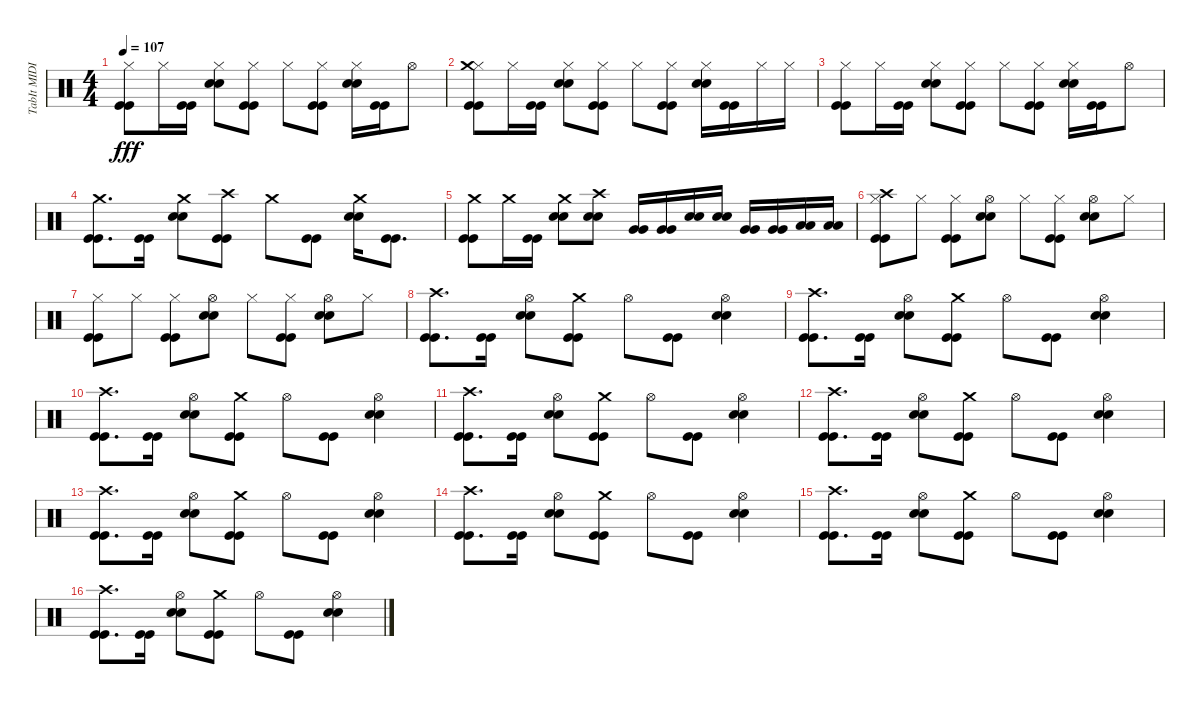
\track ("TabIt MIDI - Track 5" "TabIt MIDI") {instrument percussion}
\staff {score}
\articulation defaults
\ts (4 4)
\tempo 107
\clef neutral
\ks c
("Kick (hit)" "Kick (hit)" "Hi-Hat (closed)").8{dy fff} "Hi-Hat (closed)".16 ("Kick (hit)" "Kick (hit)").16 ("Snare (hit) 2" "Snare (hit) 2" "Hi-Hat (closed)").8 ("Kick (hit)" "Kick (hit)" "Hi-Hat (closed)").8 "Hi-Hat (closed)".8 ("Kick (hit)" "Kick (hit)" "Hi-Hat (closed)").8 ("Snare (hit) 2" "Snare (hit) 2" "Hi-Hat (closed)").16 ("Kick (hit)" "Kick (hit)").16 "Hi-Hat (open)".8 |
("Kick (hit)" "Kick (hit)" "Hi-Hat (closed)" "Crash medium (hit)").8 "Hi-Hat (closed)".16 ("Kick (hit)" "Kick (hit)").16 ("Snare (hit) 2" "Snare (hit) 2" "Hi-Hat (closed)").8 ("Kick (hit)" "Kick (hit)" "Hi-Hat (closed)").8 "Hi-Hat (closed)".8 ("Kick (hit)" "Kick (hit)" "Hi-Hat (closed)").8 ("Snare (hit) 2" "Snare (hit) 2" "Hi-Hat (closed)").16 ("Kick (hit)" "Kick (hit)").16 "Hi-Hat (closed)".16 "Hi-Hat (closed)".16 |
("Kick (hit)" "Kick (hit)" "Hi-Hat (closed)").8 "Hi-Hat (closed)".16 ("Kick (hit)" "Kick (hit)").16 ("Snare (hit) 2" "Snare (hit) 2" "Hi-Hat (closed)").8 ("Kick (hit)" "Kick (hit)" "Hi-Hat (closed)").8 "Hi-Hat (closed)".8 ("Kick (hit)" "Kick (hit)" "Hi-Hat (closed)").8 ("Snare (hit) 2" "Snare (hit) 2" "Hi-Hat (closed)").16 ("Kick (hit)" "Kick (hit)").16 "Hi-Hat (open)".8 |
("Kick (hit)" "Kick (hit)" "Crash medium (hit)").8{d} ("Kick (hit)" "Kick (hit)").16 ("Snare (hit) 2" "Snare (hit) 2" "Crash medium (hit)").8 ("Kick (hit)" "Kick (hit)" "Crash high (hit)").8 "Crash medium (hit)".8 ("Kick (hit)" "Kick (hit)").8 ("Snare (hit) 2" "Snare (hit) 2" "Crash medium (hit)").16 ("Kick (hit)" "Kick (hit)").8{d} |
("Kick (hit)" "Kick (hit)" "Crash medium (hit)").8 "Crash medium (hit)".16 ("Kick (hit)" "Kick (hit)").16 ("Snare (hit) 2" "Snare (hit) 2" "Crash medium (hit)").8 ("Snare (hit) 2" "Snare (hit) 2" "Crash high (hit)").8 ("Very Low Tom (hit)" "Very Low Tom (hit)").16 ("Very Low Tom (hit)" "Very Low Tom (hit)").16 ("Snare (hit) 2" "Snare (hit) 2").16 ("Snare (hit) 2" "Snare (hit) 2").16 ("Very Low Tom (hit)" "Very Low Tom (hit)").16 ("Very Low Tom (hit)" "Very Low Tom (hit)").16 ("Low Floor Tom (hit)" "Low Floor Tom (hit)").16 ("Low Floor Tom (hit)" "Low Floor Tom (hit)").16 |
("Kick (hit)" "Kick (hit)" "Hi-Hat (closed)" "Crash high (hit)").8 "Hi-Hat (closed)".8 ("Kick (hit)" "Kick (hit)" "Hi-Hat (closed)").8 ("Snare (hit) 2" "Snare (hit) 2" "Hi-Hat (open)").8 "Hi-Hat (closed)".8 ("Kick (hit)" "Kick (hit)" "Hi-Hat (closed)").8 ("Snare (hit) 2" "Snare (hit) 2" "Hi-Hat (open)").8 "Hi-Hat (closed)".8 |
("Kick (hit)" "Kick (hit)" "Hi-Hat (closed)").8 "Hi-Hat (closed)".8 ("Kick (hit)" "Kick (hit)" "Hi-Hat (closed)").8 ("Snare (hit) 2" "Snare (hit) 2" "Hi-Hat (open)").8 "Hi-Hat (closed)".8 ("Kick (hit)" "Kick (hit)" "Hi-Hat (closed)").8 ("Snare (hit) 2" "Snare (hit) 2" "Hi-Hat (open)").8 "Hi-Hat (closed)".8 |
("Kick (hit)" "Kick (hit)" "Crash high (hit)").8{d} ("Kick (hit)" "Kick (hit)").16 ("Snare (hit) 2" "Snare (hit) 2" "Hi-Hat (open)").8 ("Kick (hit)" "Kick (hit)" "Crash medium (hit)").8 "Hi-Hat (open)".8 ("Kick (hit)" "Kick (hit)").8 ("Snare (hit) 2" "Snare (hit) 2" "Hi-Hat (open)").4 |
("Kick (hit)" "Kick (hit)" "Crash high (hit)").8{d} ("Kick (hit)" "Kick (hit)").16 ("Snare (hit) 2" "Snare (hit) 2" "Hi-Hat (open)").8 ("Kick (hit)" "Kick (hit)" "Crash medium (hit)").8 "Hi-Hat (open)".8 ("Kick (hit)" "Kick (hit)").8 ("Snare (hit) 2" "Snare (hit) 2" "Hi-Hat (open)").4 |
("Kick (hit)" "Kick (hit)" "Crash high (hit)").8{d} ("Kick (hit)" "Kick (hit)").16 ("Snare (hit) 2" "Snare (hit) 2" "Hi-Hat (open)").8 ("Kick (hit)" "Kick (hit)" "Crash medium (hit)").8 "Hi-Hat (open)".8 ("Kick (hit)" "Kick (hit)").8 ("Snare (hit) 2" "Snare (hit) 2" "Hi-Hat (open)").4 |
("Kick (hit)" "Kick (hit)" "Crash high (hit)").8{d} ("Kick (hit)" "Kick (hit)").16 ("Snare (hit) 2" "Snare (hit) 2" "Hi-Hat (open)").8 ("Kick (hit)" "Kick (hit)" "Crash medium (hit)").8 "Hi-Hat (open)".8 ("Kick (hit)" "Kick (hit)").8 ("Snare (hit) 2" "Snare (hit) 2" "Hi-Hat (open)").4 |
("Kick (hit)" "Kick (hit)" "Crash high (hit)").8{d} ("Kick (hit)" "Kick (hit)").16 ("Snare (hit) 2" "Snare (hit) 2" "Hi-Hat (open)").8 ("Kick (hit)" "Kick (hit)" "Crash medium (hit)").8 "Hi-Hat (open)".8 ("Kick (hit)" "Kick (hit)").8 ("Snare (hit) 2" "Snare (hit) 2" "Hi-Hat (open)").4 |
("Kick (hit)" "Kick (hit)" "Crash high (hit)").8{d} ("Kick (hit)" "Kick (hit)").16 ("Snare (hit) 2" "Snare (hit) 2" "Hi-Hat (open)").8 ("Kick (hit)" "Kick (hit)" "Crash medium (hit)").8 "Hi-Hat (open)".8 ("Kick (hit)" "Kick (hit)").8 ("Snare (hit) 2" "Snare (hit) 2" "Hi-Hat (open)").4 |
("Kick (hit)" "Kick (hit)" "Crash high (hit)").8{d} ("Kick (hit)" "Kick (hit)").16 ("Snare (hit) 2" "Snare (hit) 2" "Hi-Hat (open)").8 ("Kick (hit)" "Kick (hit)" "Crash medium (hit)").8 "Hi-Hat (open)".8 ("Kick (hit)" "Kick (hit)").8 ("Snare (hit) 2" "Snare (hit) 2" "Hi-Hat (open)").4 |
("Kick (hit)" "Kick (hit)" "Crash high (hit)").8{d} ("Kick (hit)" "Kick (hit)").16 ("Snare (hit) 2" "Snare (hit) 2" "Hi-Hat (open)").8 ("Kick (hit)" "Kick (hit)" "Crash medium (hit)").8 "Hi-Hat (open)".8 ("Kick (hit)" "Kick (hit)").8 ("Snare (hit) 2" "Snare (hit) 2" "Hi-Hat (open)").4 |
("Kick (hit)" "Kick (hit)" "Crash high (hit)").8{d} ("Kick (hit)" "Kick (hit)").16 ("Snare (hit) 2" "Snare (hit) 2" "Hi-Hat (open)").8 ("Kick (hit)" "Kick (hit)" "Crash medium (hit)").8 "Hi-Hat (open)".8 ("Kick (hit)" "Kick (hit)").8 ("Snare (hit) 2" "Snare (hit) 2" "Hi-Hat (open)").4
